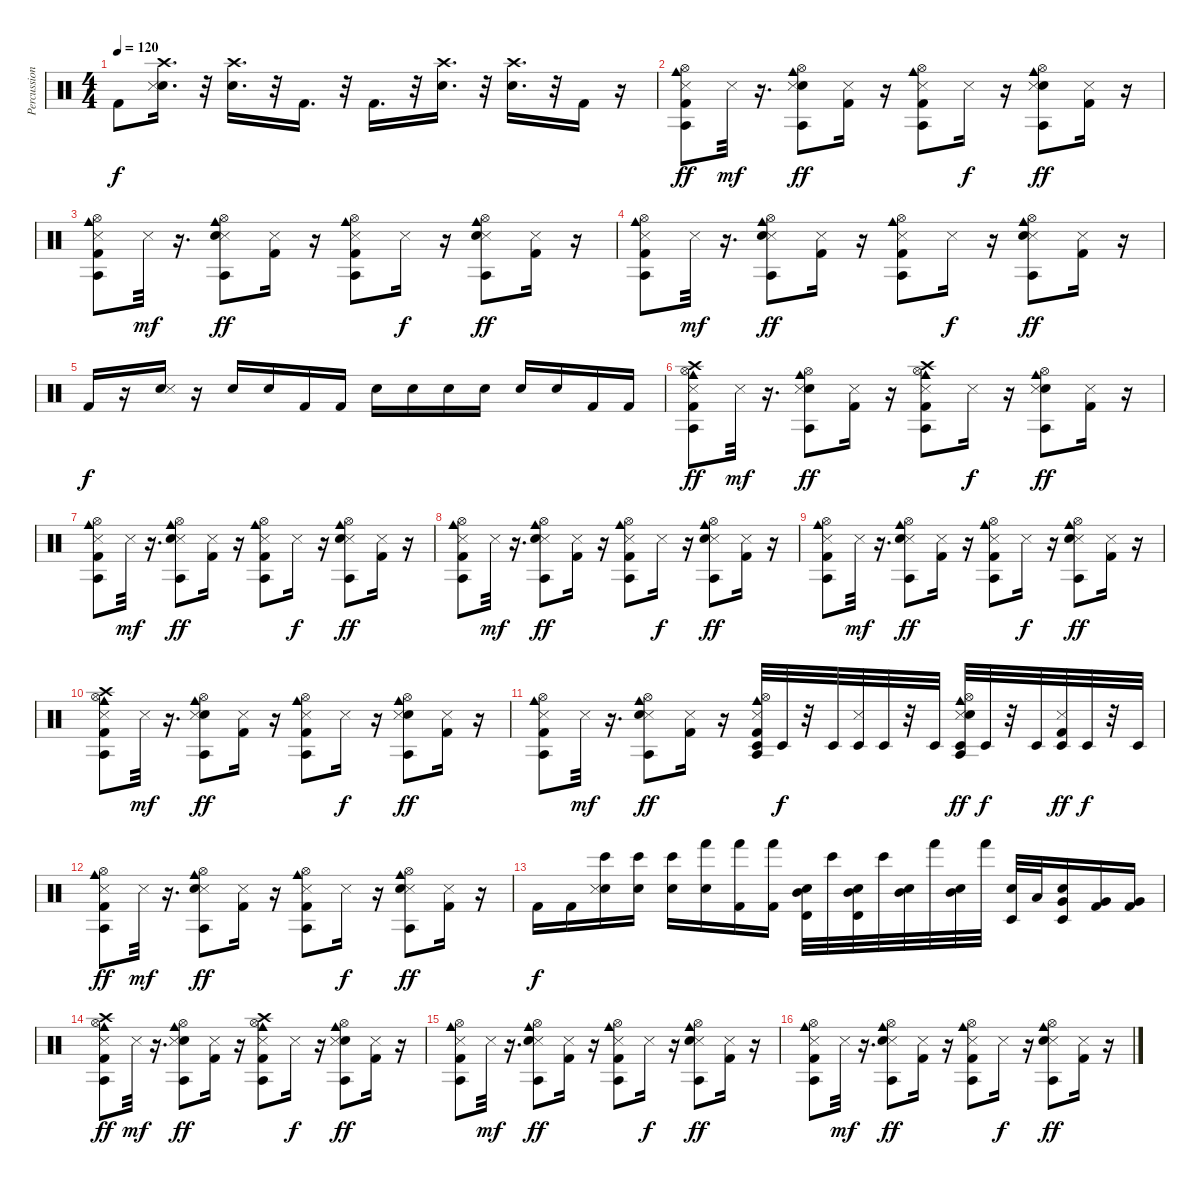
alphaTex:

\track ("Percussion" "Percussion") {instrument percussion}
\staff {score}
\articulation defaults
\ts (4 4)
\tempo 120
\clef neutral
\ks c "Kick (hit) 2".8{dy f}
("Crash high (hit)" "Snare (hit) 2" "Snare (side stick) 3").16{d} r.32 ("Snare (hit) 2" "Crash high (hit)").16{d} r.32 "Kick (hit) 2".16{d} r.32 "Kick (hit) 2".16{d} r.32 ("Snare (hit) 2" "Crash high (hit)").16{d} r.32 ("Snare (hit) 2" "Crash high (hit)").16{d} r.32 "Kick (hit) 2".16 r.16 |
("Hi-Hat (open)" "Kick (hit) 2" "Agogo tow (hit)" "Cowbell medium (hit)" "Snare (side stick) 3").8{dy ff} "Snare (side stick) 3".32{dy mf} r.16{d} ("Hi-Hat (open)" "Snare (hit) 2" "Agogo tow (hit)" "Cowbell medium (hit)" "Snare (side stick) 3").8{dy ff} ("Kick (hit) 2" "Snare (side stick) 3").16 r.16 ("Hi-Hat (open)" "Kick (hit) 2" "Agogo tow (hit)" "Cowbell medium (hit)" "Snare (side stick) 3").8 "Snare (side stick) 3".16{dy f} r.16 ("Hi-Hat (open)" "Snare (hit) 2" "Agogo tow (hit)" "Cowbell medium (hit)" "Snare (side stick) 3").8{dy ff} ("Kick (hit) 2" "Snare (side stick) 3").16 r.16 |
("Hi-Hat (open)" "Cowbell medium (hit)" "Snare (side stick) 3" "Agogo tow (hit)" "Kick (hit) 2").8 "Snare (side stick) 3".32{dy mf} r.16{d} ("Hi-Hat (open)" "Cowbell medium (hit)" "Snare (side stick) 3" "Agogo tow (hit)" "Snare (hit) 2").8{dy ff} ("Snare (side stick) 3" "Kick (hit) 2").16 r.16 ("Hi-Hat (open)" "Cowbell medium (hit)" "Snare (side stick) 3" "Agogo tow (hit)" "Kick (hit) 2").8 "Snare (side stick) 3".16{dy f} r.16 ("Hi-Hat (open)" "Cowbell medium (hit)" "Snare (side stick) 3" "Agogo tow (hit)" "Snare (hit) 2").8{dy ff} ("Snare (side stick) 3" "Kick (hit) 2").16 r.16 |
("Hi-Hat (open)" "Snare (side stick) 3" "Agogo tow (hit)" "Kick (hit) 2" "Cowbell medium (hit)").8 "Snare (side stick) 3".32{dy mf} r.16{d} ("Hi-Hat (open)" "Snare (side stick) 3" "Agogo tow (hit)" "Snare (hit) 2" "Cowbell medium (hit)").8{dy ff} ("Snare (side stick) 3" "Kick (hit) 2").16 r.16 ("Hi-Hat (open)" "Snare (side stick) 3" "Agogo tow (hit)" "Kick (hit) 2" "Cowbell medium (hit)").8 "Snare (side stick) 3".16{dy f} r.16 ("Hi-Hat (open)" "Snare (side stick) 3" "Agogo tow (hit)" "Snare (hit) 2" "Cowbell medium (hit)").8{dy ff} ("Snare (side stick) 3" "Kick (hit) 2").16 r.16 |
"Kick (hit) 2".16{dy f} r.16 ("Snare (hit) 2" "Snare (side stick) 3").16 r.16 "Snare (hit) 2".16 "Snare (hit) 2".16 "Kick (hit) 2".16 "Kick (hit) 2".16 "Snare (hit) 2".16 "Snare (hit) 2".16 "Electric Snare (hit)".16 "Electric Snare (hit)".16 "Snare (hit) 2".16 "Snare (hit) 2".16 "Kick (hit) 2".16 "Kick (hit) 2".16 |
("Hi-Hat (open)" "Kick (hit) 2" "Agogo tow (hit)" "Crash high (hit)" "Cowbell medium (hit)" "Snare (side stick) 3").8{dy ff} "Snare (side stick) 3".32{dy mf} r.16{d} ("Hi-Hat (open)" "Snare (hit) 2" "Agogo tow (hit)" "Cowbell medium (hit)" "Snare (side stick) 3").8{dy ff} ("Kick (hit) 2" "Snare (side stick) 3").16 r.16 ("Crash high (hit)" "Hi-Hat (open)" "Kick (hit) 2" "Agogo tow (hit)" "Cowbell medium (hit)" "Snare (side stick) 3").8 "Snare (side stick) 3".16{dy f} r.16 ("Hi-Hat (open)" "Snare (hit) 2" "Agogo tow (hit)" "Cowbell medium (hit)" "Snare (side stick) 3").8{dy ff} ("Kick (hit) 2" "Snare (side stick) 3").16 r.16 |
("Hi-Hat (open)" "Cowbell medium (hit)" "Snare (side stick) 3" "Agogo tow (hit)" "Kick (hit) 2").8 "Snare (side stick) 3".32{dy mf} r.16{d} ("Hi-Hat (open)" "Cowbell medium (hit)" "Snare (side stick) 3" "Agogo tow (hit)" "Snare (hit) 2").8{dy ff} ("Snare (side stick) 3" "Kick (hit) 2").16 r.16 ("Hi-Hat (open)" "Cowbell medium (hit)" "Snare (side stick) 3" "Agogo tow (hit)" "Kick (hit) 2").8 "Snare (side stick) 3".16{dy f} r.16 ("Hi-Hat (open)" "Cowbell medium (hit)" "Snare (side stick) 3" "Agogo tow (hit)" "Snare (hit) 2").8{dy ff} ("Snare (side stick) 3" "Kick (hit) 2").16 r.16 |
("Hi-Hat (open)" "Snare (side stick) 3" "Agogo tow (hit)" "Kick (hit) 2" "Cowbell medium (hit)").8 "Snare (side stick) 3".32{dy mf} r.16{d} ("Hi-Hat (open)" "Snare (side stick) 3" "Agogo tow (hit)" "Snare (hit) 2" "Cowbell medium (hit)").8{dy ff} ("Snare (side stick) 3" "Kick (hit) 2").16 r.16 ("Hi-Hat (open)" "Snare (side stick) 3" "Agogo tow (hit)" "Kick (hit) 2" "Cowbell medium (hit)").8 "Snare (side stick) 3".16{dy f} r.16 ("Hi-Hat (open)" "Snare (side stick) 3" "Agogo tow (hit)" "Snare (hit) 2" "Cowbell medium (hit)").8{dy ff} ("Snare (side stick) 3" "Kick (hit) 2").16 r.16 |
("Hi-Hat (open)" "Snare (side stick) 3" "Agogo tow (hit)" "Kick (hit) 2" "Cowbell medium (hit)").8 "Snare (side stick) 3".32{dy mf} r.16{d} ("Hi-Hat (open)" "Snare (side stick) 3" "Agogo tow (hit)" "Snare (hit) 2" "Cowbell medium (hit)").8{dy ff} ("Snare (side stick) 3" "Kick (hit) 2").16 r.16 ("Hi-Hat (open)" "Snare (side stick) 3" "Agogo tow (hit)" "Kick (hit) 2" "Cowbell medium (hit)").8 "Snare (side stick) 3".16{dy f} r.16 ("Hi-Hat (open)" "Snare (side stick) 3" "Agogo tow (hit)" "Snare (hit) 2" "Cowbell medium (hit)").8{dy ff} ("Snare (side stick) 3" "Kick (hit) 2").16 r.16 |
("Hi-Hat (open)" "Kick (hit) 2" "Agogo tow (hit)" "Crash high (hit)" "Cowbell medium (hit)" "Snare (side stick) 3").8 "Snare (side stick) 3".32{dy mf} r.16{d} ("Hi-Hat (open)" "Snare (hit) 2" "Agogo tow (hit)" "Cowbell medium (hit)" "Snare (side stick) 3").8{dy ff} ("Kick (hit) 2" "Snare (side stick) 3").16 r.16 ("Hi-Hat (open)" "Kick (hit) 2" "Agogo tow (hit)" "Cowbell medium (hit)" "Snare (side stick) 3").8 "Snare (side stick) 3".16{dy f} r.16 ("Hi-Hat (open)" "Snare (hit) 2" "Agogo tow (hit)" "Cowbell medium (hit)" "Snare (side stick) 3").8{dy ff} ("Kick (hit) 2" "Snare (side stick) 3").16 r.16 |
("Hi-Hat (open)" "Cowbell medium (hit)" "Snare (side stick) 3" "Agogo tow (hit)" "Kick (hit) 2").8 "Snare (side stick) 3".32{dy mf} r.16{d} ("Hi-Hat (open)" "Cowbell medium (hit)" "Snare (side stick) 3" "Agogo tow (hit)" "Snare (hit) 2").8{dy ff} ("Snare (side stick) 3" "Kick (hit) 2").16 r.16 ("Timbale low (hit)" "Hi-Hat (open)" "Cowbell medium (hit)" "Snare (side stick) 3" "Agogo tow (hit)" "Kick (hit) 2").32 "Timbale low (hit)".32{dy f} r.32 "Timbale low (hit)".32 ("Timbale low (hit)" "Snare (side stick) 3").32 "Timbale low (hit)".32 r.32 "Timbale low (hit)".32 ("Hi-Hat (open)" "Cowbell medium (hit)" "Snare (side stick) 3" "Agogo tow (hit)" "Snare (hit) 2" "Timbale low (hit)").32{dy ff} "Timbale low (hit)".32{dy f} r.32 "Timbale low (hit)".32 ("Timbale low (hit)" "Snare (side stick) 3" "Kick (hit) 2").32{dy ff} "Timbale low (hit)".32{dy f} r.32 "Timbale low (hit)".32 |
("Hi-Hat (open)" "Snare (side stick) 3" "Agogo tow (hit)" "Kick (hit) 2" "Cowbell medium (hit)").8{dy ff} "Snare (side stick) 3".32{dy mf} r.16{d} ("Hi-Hat (open)" "Snare (side stick) 3" "Agogo tow (hit)" "Snare (hit) 2" "Cowbell medium (hit)").8{dy ff} ("Snare (side stick) 3" "Kick (hit) 2").16 r.16 ("Hi-Hat (open)" "Snare (side stick) 3" "Agogo tow (hit)" "Kick (hit) 2" "Cowbell medium (hit)").8 "Snare (side stick) 3".16{dy f} r.16 ("Hi-Hat (open)" "Snare (side stick) 3" "Agogo tow (hit)" "Snare (hit) 2" "Cowbell medium (hit)").8{dy ff} ("Snare (side stick) 3" "Kick (hit) 2").16 r.16 |
"Kick (hit) 2".16{dy f} "Kick (hit) 2".16 ("Snare (hit) 2" "Snare (side stick) 3" "Bongo High (hit)").16 ("Bongo High (hit)" "Snare (hit) 2").16 ("Bongo High (hit)" "Snare (hit) 2").16 ("Hand (hit)" "Snare (hit) 2").16 ("Hand (hit)" "Kick (hit) 2").16 ("Hand (hit)" "Kick (hit) 2").16 ("Timbale high (hit)" "Mid Tom (hit)" "Snare (hit) 2").32 "Bongo High (hit)".32 ("Mid Tom (hit)" "Snare (hit) 2" "Timbale high (hit)").32 "Bongo High (hit)".32 ("Mid Tom (hit)" "Electric Snare (hit)").32 "Hand (hit)".32 ("Electric Snare (hit)" "Mid Tom (hit)").32 "Hand (hit)".32 ("Timbale low (hit)" "Snare (hit) 2").32 "Low Tom (hit)".32 ("Timbale low (hit)" "Snare (hit) 2" "Very Low Tom (hit)").16 ("Kick (hit) 2" "Very Low Tom (hit)").16 ("Kick (hit) 2" "Very Low Tom (hit)").16 |
("Hi-Hat (open)" "Kick (hit) 2" "Agogo tow (hit)" "Crash high (hit)" "Cowbell medium (hit)" "Snare (side stick) 3").8{dy ff} "Snare (side stick) 3".32{dy mf} r.16{d} ("Hi-Hat (open)" "Snare (hit) 2" "Agogo tow (hit)" "Cowbell medium (hit)" "Snare (side stick) 3").8{dy ff} ("Kick (hit) 2" "Snare (side stick) 3").16 r.16 ("Crash high (hit)" "Hi-Hat (open)" "Kick (hit) 2" "Agogo tow (hit)" "Cowbell medium (hit)" "Snare (side stick) 3").8 "Snare (side stick) 3".16{dy f} r.16 ("Hi-Hat (open)" "Snare (hit) 2" "Agogo tow (hit)" "Cowbell medium (hit)" "Snare (side stick) 3").8{dy ff} ("Kick (hit) 2" "Snare (side stick) 3").16 r.16 |
("Hi-Hat (open)" "Cowbell medium (hit)" "Snare (side stick) 3" "Agogo tow (hit)" "Kick (hit) 2").8 "Snare (side stick) 3".32{dy mf} r.16{d} ("Hi-Hat (open)" "Cowbell medium (hit)" "Snare (side stick) 3" "Agogo tow (hit)" "Snare (hit) 2").8{dy ff} ("Snare (side stick) 3" "Kick (hit) 2").16 r.16 ("Hi-Hat (open)" "Cowbell medium (hit)" "Snare (side stick) 3" "Agogo tow (hit)" "Kick (hit) 2").8 "Snare (side stick) 3".16{dy f} r.16 ("Hi-Hat (open)" "Cowbell medium (hit)" "Snare (side stick) 3" "Agogo tow (hit)" "Snare (hit) 2").8{dy ff} ("Snare (side stick) 3" "Kick (hit) 2").16 r.16 |
("Hi-Hat (open)" "Snare (side stick) 3" "Agogo tow (hit)" "Kick (hit) 2" "Cowbell medium (hit)").8 "Snare (side stick) 3".32{dy mf} r.16{d} ("Hi-Hat (open)" "Snare (side stick) 3" "Agogo tow (hit)" "Snare (hit) 2" "Cowbell medium (hit)").8{dy ff} ("Snare (side stick) 3" "Kick (hit) 2").16 r.16 ("Hi-Hat (open)" "Snare (side stick) 3" "Agogo tow (hit)" "Kick (hit) 2" "Cowbell medium (hit)").8 "Snare (side stick) 3".16{dy f} r.16 ("Hi-Hat (open)" "Snare (side stick) 3" "Agogo tow (hit)" "Snare (hit) 2" "Cowbell medium (hit)").8{dy ff} ("Snare (side stick) 3" "Kick (hit) 2").16 r.16
